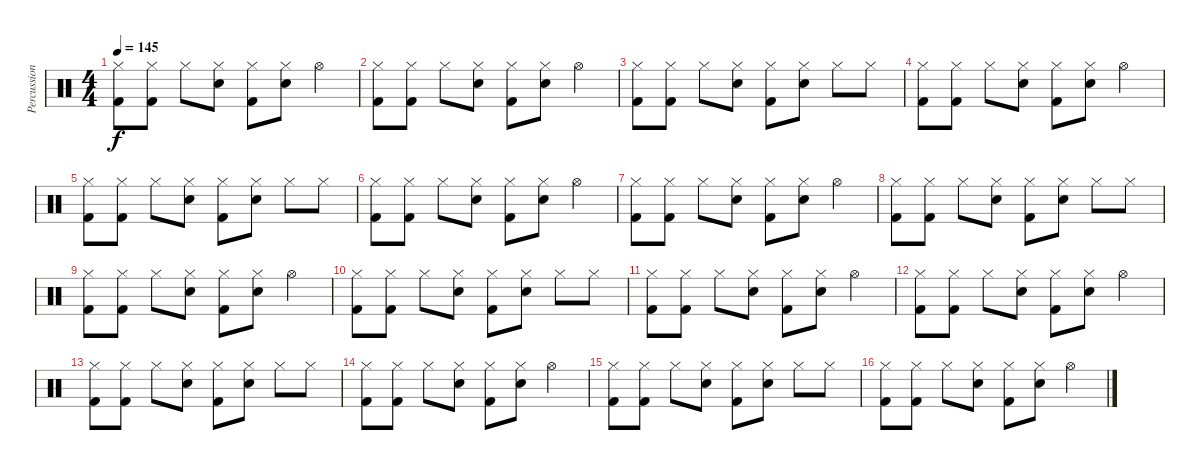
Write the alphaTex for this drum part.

\track ("Percussion" "Percussion") {instrument percussion}
\staff {score}
\articulation defaults
\ts (4 4)
\tempo 145
\clef neutral
\ks c
("Hi-Hat (closed)" "Kick (hit) 2").8{dy f} ("Hi-Hat (closed)" "Kick (hit) 2").8 "Hi-Hat (closed)".8 ("Hi-Hat (closed)" "Electric Snare (hit)").8 ("Hi-Hat (closed)" "Kick (hit) 2").8 ("Hi-Hat (closed)" "Electric Snare (hit)").8 "Hi-Hat (open)".4 |
("Hi-Hat (closed)" "Kick (hit) 2").8 ("Hi-Hat (closed)" "Kick (hit) 2").8 "Hi-Hat (closed)".8 ("Hi-Hat (closed)" "Electric Snare (hit)").8 ("Hi-Hat (closed)" "Kick (hit) 2").8 ("Hi-Hat (closed)" "Electric Snare (hit)").8 "Hi-Hat (open)".4 |
("Hi-Hat (closed)" "Kick (hit) 2").8 ("Hi-Hat (closed)" "Kick (hit) 2").8 "Hi-Hat (closed)".8 ("Hi-Hat (closed)" "Electric Snare (hit)").8 ("Hi-Hat (closed)" "Kick (hit) 2").8 ("Hi-Hat (closed)" "Electric Snare (hit)").8 "Hi-Hat (closed)".8 "Hi-Hat (closed)".8 |
("Hi-Hat (closed)" "Kick (hit) 2").8 ("Hi-Hat (closed)" "Kick (hit) 2").8 "Hi-Hat (closed)".8 ("Hi-Hat (closed)" "Electric Snare (hit)").8 ("Hi-Hat (closed)" "Kick (hit) 2").8 ("Hi-Hat (closed)" "Electric Snare (hit)").8 "Hi-Hat (open)".4 |
("Hi-Hat (closed)" "Kick (hit) 2").8 ("Hi-Hat (closed)" "Kick (hit) 2").8 "Hi-Hat (closed)".8 ("Hi-Hat (closed)" "Electric Snare (hit)").8 ("Hi-Hat (closed)" "Kick (hit) 2").8 ("Hi-Hat (closed)" "Electric Snare (hit)").8 "Hi-Hat (closed)".8 "Hi-Hat (closed)".8 |
("Hi-Hat (closed)" "Kick (hit) 2").8 ("Hi-Hat (closed)" "Kick (hit) 2").8 "Hi-Hat (closed)".8 ("Hi-Hat (closed)" "Electric Snare (hit)").8 ("Hi-Hat (closed)" "Kick (hit) 2").8 ("Hi-Hat (closed)" "Electric Snare (hit)").8 "Hi-Hat (open)".4 |
("Hi-Hat (closed)" "Kick (hit) 2").8 ("Hi-Hat (closed)" "Kick (hit) 2").8 "Hi-Hat (closed)".8 ("Hi-Hat (closed)" "Electric Snare (hit)").8 ("Hi-Hat (closed)" "Kick (hit) 2").8 ("Hi-Hat (closed)" "Electric Snare (hit)").8 "Hi-Hat (open)".4 |
("Hi-Hat (closed)" "Kick (hit) 2").8 ("Hi-Hat (closed)" "Kick (hit) 2").8 "Hi-Hat (closed)".8 ("Hi-Hat (closed)" "Electric Snare (hit)").8 ("Hi-Hat (closed)" "Kick (hit) 2").8 ("Hi-Hat (closed)" "Electric Snare (hit)").8 "Hi-Hat (closed)".8 "Hi-Hat (closed)".8 |
("Hi-Hat (closed)" "Kick (hit) 2").8 ("Hi-Hat (closed)" "Kick (hit) 2").8 "Hi-Hat (closed)".8 ("Hi-Hat (closed)" "Electric Snare (hit)").8 ("Hi-Hat (closed)" "Kick (hit) 2").8 ("Hi-Hat (closed)" "Electric Snare (hit)").8 "Hi-Hat (open)".4 |
("Hi-Hat (closed)" "Kick (hit) 2").8 ("Hi-Hat (closed)" "Kick (hit) 2").8 "Hi-Hat (closed)".8 ("Hi-Hat (closed)" "Electric Snare (hit)").8 ("Hi-Hat (closed)" "Kick (hit) 2").8 ("Hi-Hat (closed)" "Electric Snare (hit)").8 "Hi-Hat (closed)".8 "Hi-Hat (closed)".8 |
("Hi-Hat (closed)" "Kick (hit) 2").8 ("Hi-Hat (closed)" "Kick (hit) 2").8 "Hi-Hat (closed)".8 ("Hi-Hat (closed)" "Electric Snare (hit)").8 ("Hi-Hat (closed)" "Kick (hit) 2").8 ("Hi-Hat (closed)" "Electric Snare (hit)").8 "Hi-Hat (open)".4 |
("Hi-Hat (closed)" "Kick (hit) 2").8 ("Hi-Hat (closed)" "Kick (hit) 2").8 "Hi-Hat (closed)".8 ("Hi-Hat (closed)" "Electric Snare (hit)").8 ("Hi-Hat (closed)" "Kick (hit) 2").8 ("Hi-Hat (closed)" "Electric Snare (hit)").8 "Hi-Hat (open)".4 |
("Hi-Hat (closed)" "Kick (hit) 2").8 ("Hi-Hat (closed)" "Kick (hit) 2").8 "Hi-Hat (closed)".8 ("Hi-Hat (closed)" "Electric Snare (hit)").8 ("Hi-Hat (closed)" "Kick (hit) 2").8 ("Hi-Hat (closed)" "Electric Snare (hit)").8 "Hi-Hat (closed)".8 "Hi-Hat (closed)".8 |
("Hi-Hat (closed)" "Kick (hit) 2").8 ("Hi-Hat (closed)" "Kick (hit) 2").8 "Hi-Hat (closed)".8 ("Hi-Hat (closed)" "Electric Snare (hit)").8 ("Hi-Hat (closed)" "Kick (hit) 2").8 ("Hi-Hat (closed)" "Electric Snare (hit)").8 "Hi-Hat (open)".4 |
("Hi-Hat (closed)" "Kick (hit) 2").8 ("Hi-Hat (closed)" "Kick (hit) 2").8 "Hi-Hat (closed)".8 ("Hi-Hat (closed)" "Electric Snare (hit)").8 ("Hi-Hat (closed)" "Kick (hit) 2").8 ("Hi-Hat (closed)" "Electric Snare (hit)").8 "Hi-Hat (closed)".8 "Hi-Hat (closed)".8 |
("Hi-Hat (closed)" "Kick (hit) 2").8 ("Hi-Hat (closed)" "Kick (hit) 2").8 "Hi-Hat (closed)".8 ("Hi-Hat (closed)" "Electric Snare (hit)").8 ("Hi-Hat (closed)" "Kick (hit) 2").8 ("Hi-Hat (closed)" "Electric Snare (hit)").8 "Hi-Hat (open)".4
